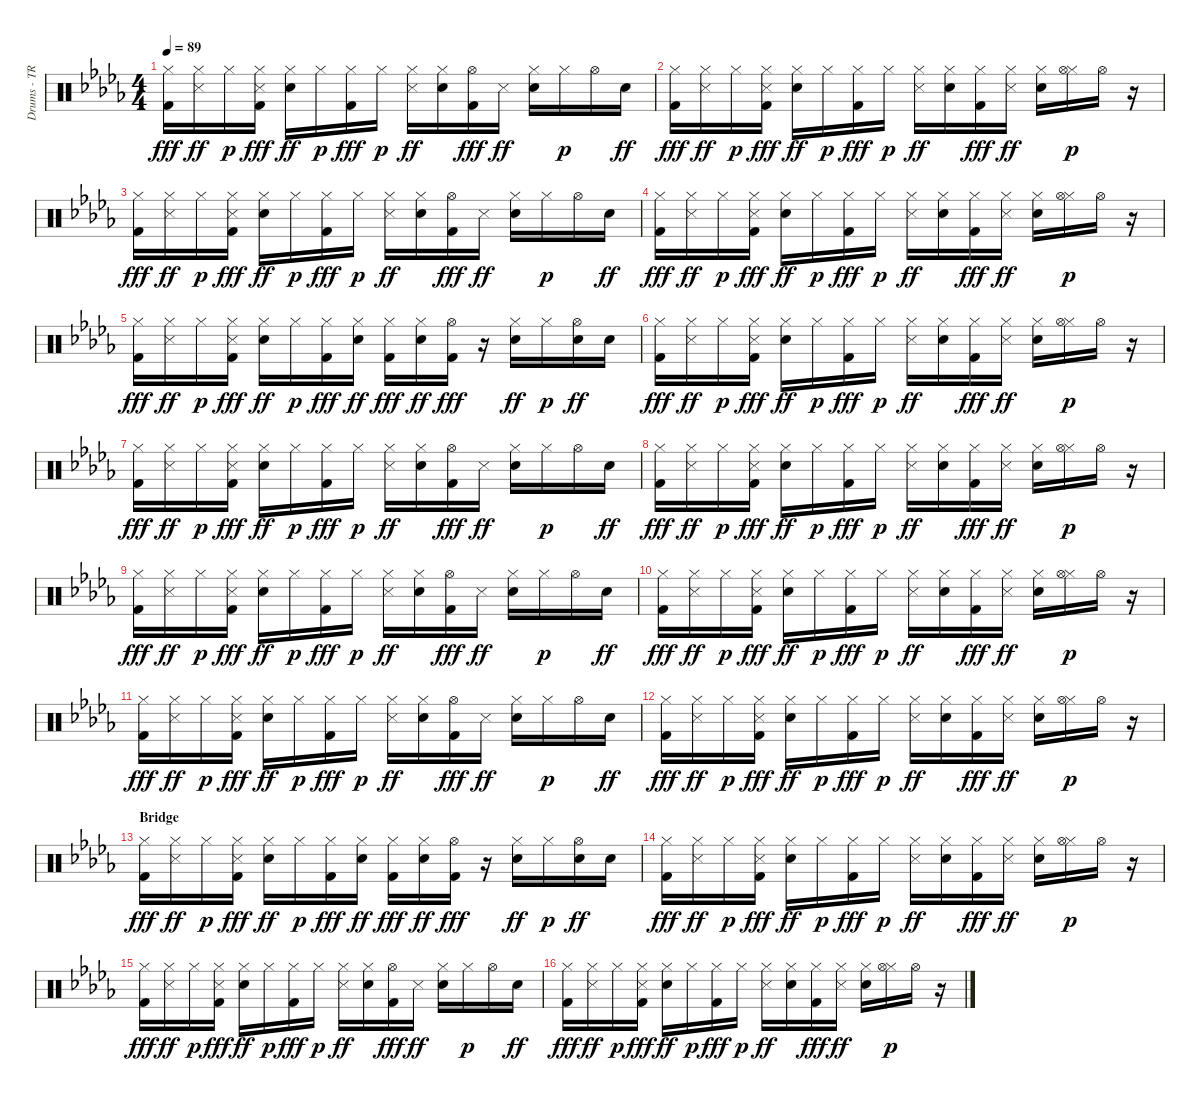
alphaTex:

\track ("Drums - TR808" "Drums - TR") {instrument percussion}
\staff {score}
\articulation defaults
\ts (4 4)
\tempo 89
\clef neutral
\ks bbminor
("Kick (hit) 2" "Hi-Hat (closed)").16{dy fff} ("Snare (side stick) 3" "Hi-Hat (closed)").16{dy ff} "Hi-Hat (closed)".16{dy p} ("Kick (hit) 2" "Snare (side stick) 3" "Hi-Hat (closed)").16{dy fff} ("Snare (hit) 2" "Hi-Hat (closed)").16{dy ff} "Hi-Hat (closed)".16{dy p} ("Kick (hit) 2" "Hi-Hat (closed)").16{dy fff} "Hi-Hat (closed)".16{dy p} ("Snare (side stick) 3" "Hi-Hat (closed)").16{dy ff} ("Snare (hit) 2" "Hi-Hat (closed)").16 ("Kick (hit) 2" "Hi-Hat (open)").16{dy fff} "Snare (side stick) 3".16{dy ff} ("Snare (hit) 2" "Hi-Hat (closed)").16 "Hi-Hat (closed)".16{dy p} "Hi-Hat (open)".16 "Snare (hit) 2".16{dy ff} |
("Kick (hit) 2" "Hi-Hat (closed)").16{dy fff} ("Snare (side stick) 3" "Hi-Hat (closed)").16{dy ff} "Hi-Hat (closed)".16{dy p} ("Kick (hit) 2" "Snare (side stick) 3" "Hi-Hat (closed)").16{dy fff} ("Snare (hit) 2" "Hi-Hat (closed)").16{dy ff} "Hi-Hat (closed)".16{dy p} ("Kick (hit) 2" "Hi-Hat (closed)").16{dy fff} "Hi-Hat (closed)".16{dy p} ("Snare (side stick) 3" "Hi-Hat (closed)").16{dy ff} ("Snare (hit) 2" "Hi-Hat (closed)").16 ("Kick (hit) 2" "Hi-Hat (closed)").16{dy fff} ("Snare (side stick) 3" "Hi-Hat (closed)").16{dy ff} ("Snare (hit) 2" "Hi-Hat (closed)").16 ("Hi-Hat (closed)" "Hi-Hat (open)").16{dy p} "Hi-Hat (open)".16 r.16 |
("Kick (hit) 2" "Hi-Hat (closed)").16{dy fff} ("Snare (side stick) 3" "Hi-Hat (closed)").16{dy ff} "Hi-Hat (closed)".16{dy p} ("Kick (hit) 2" "Snare (side stick) 3" "Hi-Hat (closed)").16{dy fff} ("Snare (hit) 2" "Hi-Hat (closed)").16{dy ff} "Hi-Hat (closed)".16{dy p} ("Kick (hit) 2" "Hi-Hat (closed)").16{dy fff} "Hi-Hat (closed)".16{dy p} ("Snare (side stick) 3" "Hi-Hat (closed)").16{dy ff} ("Snare (hit) 2" "Hi-Hat (closed)").16 ("Kick (hit) 2" "Hi-Hat (open)").16{dy fff} "Snare (side stick) 3".16{dy ff} ("Snare (hit) 2" "Hi-Hat (closed)").16 "Hi-Hat (closed)".16{dy p} "Hi-Hat (open)".16 "Snare (hit) 2".16{dy ff} |
("Kick (hit) 2" "Hi-Hat (closed)").16{dy fff} ("Snare (side stick) 3" "Hi-Hat (closed)").16{dy ff} "Hi-Hat (closed)".16{dy p} ("Kick (hit) 2" "Snare (side stick) 3" "Hi-Hat (closed)").16{dy fff} ("Snare (hit) 2" "Hi-Hat (closed)").16{dy ff} "Hi-Hat (closed)".16{dy p} ("Kick (hit) 2" "Hi-Hat (closed)").16{dy fff} "Hi-Hat (closed)".16{dy p} ("Snare (side stick) 3" "Hi-Hat (closed)").16{dy ff} ("Snare (hit) 2" "Hi-Hat (closed)").16 ("Kick (hit) 2" "Hi-Hat (closed)").16{dy fff} ("Snare (side stick) 3" "Hi-Hat (closed)").16{dy ff} ("Snare (hit) 2" "Hi-Hat (closed)").16 ("Hi-Hat (closed)" "Hi-Hat (open)").16{dy p} "Hi-Hat (open)".16 r.16 |
("Kick (hit) 2" "Hi-Hat (closed)").16{dy fff} ("Snare (side stick) 3" "Hi-Hat (closed)").16{dy ff} "Hi-Hat (closed)".16{dy p} ("Kick (hit) 2" "Snare (side stick) 3" "Hi-Hat (closed)").16{dy fff} ("Snare (hit) 2" "Hi-Hat (closed)").16{dy ff} "Hi-Hat (closed)".16{dy p} ("Kick (hit) 2" "Hi-Hat (closed)").16{dy fff} ("Snare (hit) 2" "Hi-Hat (closed)").16{dy ff} ("Kick (hit) 2" "Hi-Hat (closed)").16{dy fff} ("Snare (hit) 2" "Hi-Hat (closed)").16{dy ff} ("Kick (hit) 2" "Hi-Hat (open)").16{dy fff} r.16 ("Snare (hit) 2" "Hi-Hat (closed)").16{dy ff} "Hi-Hat (closed)".16{dy p} ("Snare (hit) 2" "Hi-Hat (open)").16{dy ff} "Snare (hit) 2".16 |
("Kick (hit) 2" "Hi-Hat (closed)").16{dy fff} ("Snare (side stick) 3" "Hi-Hat (closed)").16{dy ff} "Hi-Hat (closed)".16{dy p} ("Kick (hit) 2" "Snare (side stick) 3" "Hi-Hat (closed)").16{dy fff} ("Snare (hit) 2" "Hi-Hat (closed)").16{dy ff} "Hi-Hat (closed)".16{dy p} ("Kick (hit) 2" "Hi-Hat (closed)").16{dy fff} "Hi-Hat (closed)".16{dy p} ("Snare (side stick) 3" "Hi-Hat (closed)").16{dy ff} ("Snare (hit) 2" "Hi-Hat (closed)").16 ("Kick (hit) 2" "Hi-Hat (closed)").16{dy fff} ("Snare (side stick) 3" "Hi-Hat (closed)").16{dy ff} ("Snare (hit) 2" "Hi-Hat (closed)").16 ("Hi-Hat (closed)" "Hi-Hat (open)").16{dy p} "Hi-Hat (open)".16 r.16 |
("Kick (hit) 2" "Hi-Hat (closed)").16{dy fff} ("Snare (side stick) 3" "Hi-Hat (closed)").16{dy ff} "Hi-Hat (closed)".16{dy p} ("Kick (hit) 2" "Snare (side stick) 3" "Hi-Hat (closed)").16{dy fff} ("Snare (hit) 2" "Hi-Hat (closed)").16{dy ff} "Hi-Hat (closed)".16{dy p} ("Kick (hit) 2" "Hi-Hat (closed)").16{dy fff} "Hi-Hat (closed)".16{dy p} ("Snare (side stick) 3" "Hi-Hat (closed)").16{dy ff} ("Snare (hit) 2" "Hi-Hat (closed)").16 ("Kick (hit) 2" "Hi-Hat (open)").16{dy fff} "Snare (side stick) 3".16{dy ff} ("Snare (hit) 2" "Hi-Hat (closed)").16 "Hi-Hat (closed)".16{dy p} "Hi-Hat (open)".16 "Snare (hit) 2".16{dy ff} |
("Kick (hit) 2" "Hi-Hat (closed)").16{dy fff} ("Snare (side stick) 3" "Hi-Hat (closed)").16{dy ff} "Hi-Hat (closed)".16{dy p} ("Kick (hit) 2" "Snare (side stick) 3" "Hi-Hat (closed)").16{dy fff} ("Snare (hit) 2" "Hi-Hat (closed)").16{dy ff} "Hi-Hat (closed)".16{dy p} ("Kick (hit) 2" "Hi-Hat (closed)").16{dy fff} "Hi-Hat (closed)".16{dy p} ("Snare (side stick) 3" "Hi-Hat (closed)").16{dy ff} ("Snare (hit) 2" "Hi-Hat (closed)").16 ("Kick (hit) 2" "Hi-Hat (closed)").16{dy fff} ("Snare (side stick) 3" "Hi-Hat (closed)").16{dy ff} ("Snare (hit) 2" "Hi-Hat (closed)").16 ("Hi-Hat (closed)" "Hi-Hat (open)").16{dy p} "Hi-Hat (open)".16 r.16 |
("Kick (hit) 2" "Hi-Hat (closed)").16{dy fff} ("Snare (side stick) 3" "Hi-Hat (closed)").16{dy ff} "Hi-Hat (closed)".16{dy p} ("Kick (hit) 2" "Snare (side stick) 3" "Hi-Hat (closed)").16{dy fff} ("Snare (hit) 2" "Hi-Hat (closed)").16{dy ff} "Hi-Hat (closed)".16{dy p} ("Kick (hit) 2" "Hi-Hat (closed)").16{dy fff} "Hi-Hat (closed)".16{dy p} ("Snare (side stick) 3" "Hi-Hat (closed)").16{dy ff} ("Snare (hit) 2" "Hi-Hat (closed)").16 ("Kick (hit) 2" "Hi-Hat (open)").16{dy fff} "Snare (side stick) 3".16{dy ff} ("Snare (hit) 2" "Hi-Hat (closed)").16 "Hi-Hat (closed)".16{dy p} "Hi-Hat (open)".16 "Snare (hit) 2".16{dy ff} |
("Kick (hit) 2" "Hi-Hat (closed)").16{dy fff} ("Snare (side stick) 3" "Hi-Hat (closed)").16{dy ff} "Hi-Hat (closed)".16{dy p} ("Kick (hit) 2" "Snare (side stick) 3" "Hi-Hat (closed)").16{dy fff} ("Snare (hit) 2" "Hi-Hat (closed)").16{dy ff} "Hi-Hat (closed)".16{dy p} ("Kick (hit) 2" "Hi-Hat (closed)").16{dy fff} "Hi-Hat (closed)".16{dy p} ("Snare (side stick) 3" "Hi-Hat (closed)").16{dy ff} ("Snare (hit) 2" "Hi-Hat (closed)").16 ("Kick (hit) 2" "Hi-Hat (closed)").16{dy fff} ("Snare (side stick) 3" "Hi-Hat (closed)").16{dy ff} ("Snare (hit) 2" "Hi-Hat (closed)").16 ("Hi-Hat (closed)" "Hi-Hat (open)").16{dy p} "Hi-Hat (open)".16 r.16 |
("Kick (hit) 2" "Hi-Hat (closed)").16{dy fff} ("Snare (side stick) 3" "Hi-Hat (closed)").16{dy ff} "Hi-Hat (closed)".16{dy p} ("Kick (hit) 2" "Snare (side stick) 3" "Hi-Hat (closed)").16{dy fff} ("Snare (hit) 2" "Hi-Hat (closed)").16{dy ff} "Hi-Hat (closed)".16{dy p} ("Kick (hit) 2" "Hi-Hat (closed)").16{dy fff} "Hi-Hat (closed)".16{dy p} ("Snare (side stick) 3" "Hi-Hat (closed)").16{dy ff} ("Snare (hit) 2" "Hi-Hat (closed)").16 ("Kick (hit) 2" "Hi-Hat (open)").16{dy fff} "Snare (side stick) 3".16{dy ff} ("Snare (hit) 2" "Hi-Hat (closed)").16 "Hi-Hat (closed)".16{dy p} "Hi-Hat (open)".16 "Snare (hit) 2".16{dy ff} |
("Kick (hit) 2" "Hi-Hat (closed)").16{dy fff} ("Snare (side stick) 3" "Hi-Hat (closed)").16{dy ff} "Hi-Hat (closed)".16{dy p} ("Kick (hit) 2" "Snare (side stick) 3" "Hi-Hat (closed)").16{dy fff} ("Snare (hit) 2" "Hi-Hat (closed)").16{dy ff} "Hi-Hat (closed)".16{dy p} ("Kick (hit) 2" "Hi-Hat (closed)").16{dy fff} "Hi-Hat (closed)".16{dy p} ("Snare (side stick) 3" "Hi-Hat (closed)").16{dy ff} ("Snare (hit) 2" "Hi-Hat (closed)").16 ("Kick (hit) 2" "Hi-Hat (closed)").16{dy fff} ("Snare (side stick) 3" "Hi-Hat (closed)").16{dy ff} ("Snare (hit) 2" "Hi-Hat (closed)").16 ("Hi-Hat (closed)" "Hi-Hat (open)").16{dy p} "Hi-Hat (open)".16 r.16 |
\section ("" "Bridge")
("Kick (hit) 2" "Hi-Hat (closed)").16{dy fff} ("Snare (side stick) 3" "Hi-Hat (closed)").16{dy ff} "Hi-Hat (closed)".16{dy p} ("Kick (hit) 2" "Snare (side stick) 3" "Hi-Hat (closed)").16{dy fff} ("Snare (hit) 2" "Hi-Hat (closed)").16{dy ff} "Hi-Hat (closed)".16{dy p} ("Kick (hit) 2" "Hi-Hat (closed)").16{dy fff} ("Snare (hit) 2" "Hi-Hat (closed)").16{dy ff} ("Kick (hit) 2" "Hi-Hat (closed)").16{dy fff} ("Snare (hit) 2" "Hi-Hat (closed)").16{dy ff} ("Kick (hit) 2" "Hi-Hat (open)").16{dy fff} r.16 ("Snare (hit) 2" "Hi-Hat (closed)").16{dy ff} "Hi-Hat (closed)".16{dy p} ("Snare (hit) 2" "Hi-Hat (open)").16{dy ff} "Snare (hit) 2".16 |
("Kick (hit) 2" "Hi-Hat (closed)").16{dy fff} ("Snare (side stick) 3" "Hi-Hat (closed)").16{dy ff} "Hi-Hat (closed)".16{dy p} ("Kick (hit) 2" "Snare (side stick) 3" "Hi-Hat (closed)").16{dy fff} ("Snare (hit) 2" "Hi-Hat (closed)").16{dy ff} "Hi-Hat (closed)".16{dy p} ("Kick (hit) 2" "Hi-Hat (closed)").16{dy fff} "Hi-Hat (closed)".16{dy p} ("Snare (side stick) 3" "Hi-Hat (closed)").16{dy ff} ("Snare (hit) 2" "Hi-Hat (closed)").16 ("Kick (hit) 2" "Hi-Hat (closed)").16{dy fff} ("Snare (side stick) 3" "Hi-Hat (closed)").16{dy ff} ("Snare (hit) 2" "Hi-Hat (closed)").16 ("Hi-Hat (closed)" "Hi-Hat (open)").16{dy p} "Hi-Hat (open)".16 r.16 |
("Kick (hit) 2" "Hi-Hat (closed)").16{dy fff} ("Snare (side stick) 3" "Hi-Hat (closed)").16{dy ff} "Hi-Hat (closed)".16{dy p} ("Kick (hit) 2" "Snare (side stick) 3" "Hi-Hat (closed)").16{dy fff} ("Snare (hit) 2" "Hi-Hat (closed)").16{dy ff} "Hi-Hat (closed)".16{dy p} ("Kick (hit) 2" "Hi-Hat (closed)").16{dy fff} "Hi-Hat (closed)".16{dy p} ("Snare (side stick) 3" "Hi-Hat (closed)").16{dy ff} ("Snare (hit) 2" "Hi-Hat (closed)").16 ("Kick (hit) 2" "Hi-Hat (open)").16{dy fff} "Snare (side stick) 3".16{dy ff} ("Snare (hit) 2" "Hi-Hat (closed)").16 "Hi-Hat (closed)".16{dy p} "Hi-Hat (open)".16 "Snare (hit) 2".16{dy ff} |
("Kick (hit) 2" "Hi-Hat (closed)").16{dy fff} ("Snare (side stick) 3" "Hi-Hat (closed)").16{dy ff} "Hi-Hat (closed)".16{dy p} ("Kick (hit) 2" "Snare (side stick) 3" "Hi-Hat (closed)").16{dy fff} ("Snare (hit) 2" "Hi-Hat (closed)").16{dy ff} "Hi-Hat (closed)".16{dy p} ("Kick (hit) 2" "Hi-Hat (closed)").16{dy fff} "Hi-Hat (closed)".16{dy p} ("Snare (side stick) 3" "Hi-Hat (closed)").16{dy ff} ("Snare (hit) 2" "Hi-Hat (closed)").16 ("Kick (hit) 2" "Hi-Hat (closed)").16{dy fff} ("Snare (side stick) 3" "Hi-Hat (closed)").16{dy ff} ("Snare (hit) 2" "Hi-Hat (closed)").16 ("Hi-Hat (closed)" "Hi-Hat (open)").16{dy p} "Hi-Hat (open)".16 r.16
